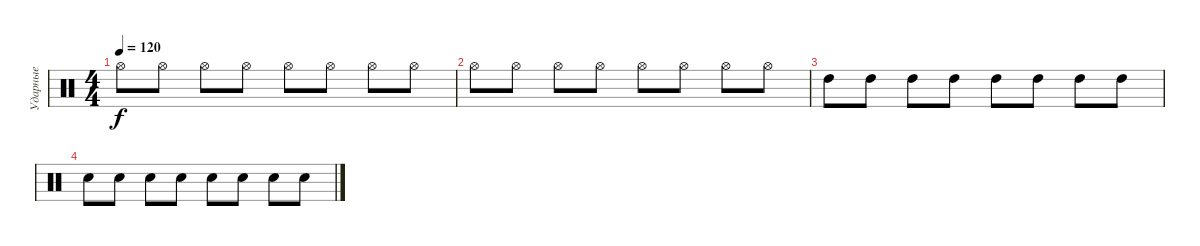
\track ("Ударные" "Ударные") {instrument percussion}
\staff {score}
\articulation defaults
\ts (4 4)
\tempo 120
\clef neutral
\ks c "Hi-Hat (open)".8{dy f} "Hi-Hat (open)".8 "Hi-Hat (open)".8 "Hi-Hat (open)".8 "Hi-Hat (open)".8 "Hi-Hat (open)".8 "Hi-Hat (open)".8 "Hi-Hat (open)".8
|
"Hi-Hat (open)".8 "Hi-Hat (open)".8 "Hi-Hat (open)".8 "Hi-Hat (open)".8 "Hi-Hat (open)".8 "Hi-Hat (open)".8 "Hi-Hat (open)".8 "Hi-Hat (open)".8 |
"High Tom (hit)".8 "High Tom (hit)".8 "High Tom (hit)".8 "High Tom (hit)".8 "High Tom (hit)".8 "High Tom (hit)".8 "High Tom (hit)".8 "High Tom (hit)".8 |
"Electric Snare (hit)".8 "Electric Snare (hit)".8 "Electric Snare (hit)".8 "Electric Snare (hit)".8 "Electric Snare (hit)".8 "Electric Snare (hit)".8 "Electric Snare (hit)".8 "Electric Snare (hit)".8
